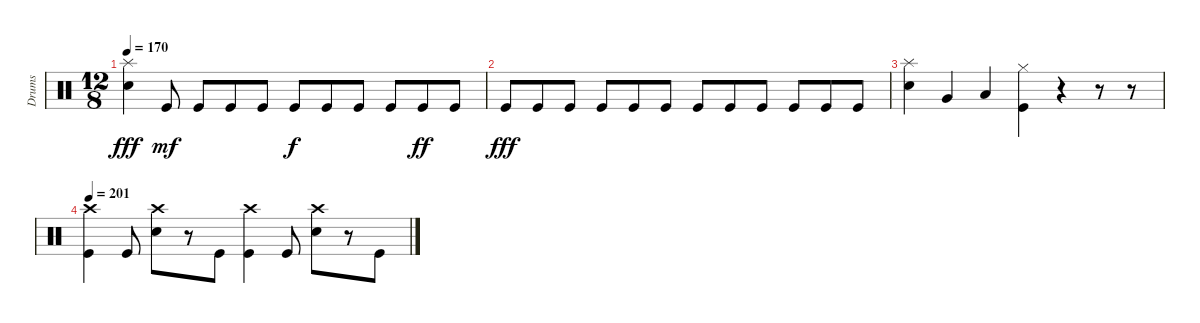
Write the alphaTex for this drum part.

\track ("Drums" "Drums") {instrument percussion}
\staff {score}
\articulation defaults
\ts (12 8)
\tempo 170
\clef neutral
\ks c
("Splash (hit)" "Snare (hit) 2").4{dy fff} "Kick (hit)".8{dy mf} "Kick (hit)".8 "Kick (hit)".8 "Kick (hit)".8 "Kick (hit)".8{dy f} "Kick (hit)".8 "Kick (hit)".8 "Kick (hit)".8 "Kick (hit)".8{dy ff} "Kick (hit)".8 |
"Kick (hit)".8{dy fff} "Kick (hit)".8 "Kick (hit)".8 "Kick (hit)".8 "Kick (hit)".8 "Kick (hit)".8 "Kick (hit)".8 "Kick (hit)".8 "Kick (hit)".8 "Kick (hit)".8 "Kick (hit)".8 "Kick (hit)".8 |
("Splash (hit)" "Snare (hit) 2").4 "Very Low Tom (hit)".4 "Low Floor Tom (hit)".4 ("Kick (hit)" "Hi-Hat (closed)").4 r.4 r.8 r.8 |
\tempo 201
("Crash high (hit)" "Kick (hit)").4{volume 0} "Kick (hit)".8 ("Crash high (hit)" "Snare (hit) 2").8 r.8 "Kick (hit)".8 ("Crash high (hit)" "Kick (hit)").4 "Kick (hit)".8 ("Crash high (hit)" "Snare (hit) 2").8 r.8 "Kick (hit)".8
